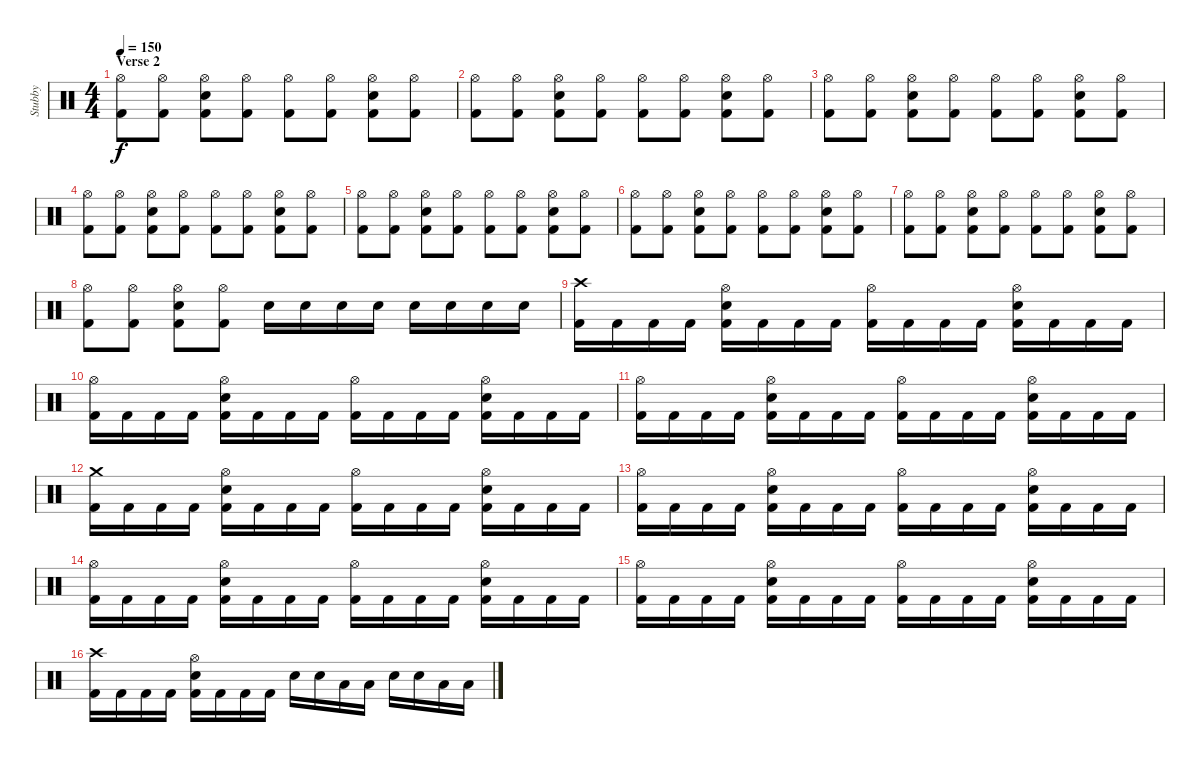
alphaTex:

\track ("Stubby" "Stubby") {instrument percussion}
\staff {score}
\articulation defaults
\ts (4 4)
\section ("" "Verse 2")
\tempo 150
\clef neutral
\ks c
("Hi-Hat (open)" "Kick (hit) 2").8{dy f} ("Hi-Hat (open)" "Kick (hit) 2").8 ("Hi-Hat (open)" "Snare (hit) 2" "Kick (hit) 2").8 ("Hi-Hat (open)" "Kick (hit) 2").8 ("Hi-Hat (open)" "Kick (hit) 2").8 ("Hi-Hat (open)" "Kick (hit) 2").8 ("Hi-Hat (open)" "Snare (hit) 2" "Kick (hit) 2").8 ("Hi-Hat (open)" "Kick (hit) 2").8 |
("Hi-Hat (open)" "Kick (hit) 2").8 ("Hi-Hat (open)" "Kick (hit) 2").8 ("Hi-Hat (open)" "Snare (hit) 2" "Kick (hit) 2").8 ("Hi-Hat (open)" "Kick (hit) 2").8 ("Hi-Hat (open)" "Kick (hit) 2").8 ("Hi-Hat (open)" "Kick (hit) 2").8 ("Hi-Hat (open)" "Snare (hit) 2" "Kick (hit) 2").8 ("Hi-Hat (open)" "Kick (hit) 2").8 |
("Hi-Hat (open)" "Kick (hit) 2").8 ("Hi-Hat (open)" "Kick (hit) 2").8 ("Hi-Hat (open)" "Snare (hit) 2" "Kick (hit) 2").8 ("Hi-Hat (open)" "Kick (hit) 2").8 ("Hi-Hat (open)" "Kick (hit) 2").8 ("Hi-Hat (open)" "Kick (hit) 2").8 ("Hi-Hat (open)" "Snare (hit) 2" "Kick (hit) 2").8 ("Hi-Hat (open)" "Kick (hit) 2").8 |
("Hi-Hat (open)" "Kick (hit) 2").8 ("Hi-Hat (open)" "Kick (hit) 2").8 ("Hi-Hat (open)" "Snare (hit) 2" "Kick (hit) 2").8 ("Hi-Hat (open)" "Kick (hit) 2").8 ("Hi-Hat (open)" "Kick (hit) 2").8 ("Hi-Hat (open)" "Kick (hit) 2").8 ("Hi-Hat (open)" "Snare (hit) 2" "Kick (hit) 2").8 ("Hi-Hat (open)" "Kick (hit) 2").8 |
("Hi-Hat (open)" "Kick (hit) 2").8 ("Hi-Hat (open)" "Kick (hit) 2").8 ("Hi-Hat (open)" "Snare (hit) 2" "Kick (hit) 2").8 ("Hi-Hat (open)" "Kick (hit) 2").8 ("Hi-Hat (open)" "Kick (hit) 2").8 ("Hi-Hat (open)" "Kick (hit) 2").8 ("Hi-Hat (open)" "Snare (hit) 2" "Kick (hit) 2").8 ("Hi-Hat (open)" "Kick (hit) 2").8 |
("Hi-Hat (open)" "Kick (hit) 2").8 ("Hi-Hat (open)" "Kick (hit) 2").8 ("Hi-Hat (open)" "Snare (hit) 2" "Kick (hit) 2").8 ("Hi-Hat (open)" "Kick (hit) 2").8 ("Hi-Hat (open)" "Kick (hit) 2").8 ("Hi-Hat (open)" "Kick (hit) 2").8 ("Hi-Hat (open)" "Snare (hit) 2" "Kick (hit) 2").8 ("Hi-Hat (open)" "Kick (hit) 2").8 |
("Hi-Hat (open)" "Kick (hit) 2").8 ("Hi-Hat (open)" "Kick (hit) 2").8 ("Hi-Hat (open)" "Snare (hit) 2" "Kick (hit) 2").8 ("Hi-Hat (open)" "Kick (hit) 2").8 ("Hi-Hat (open)" "Kick (hit) 2").8 ("Hi-Hat (open)" "Kick (hit) 2").8 ("Hi-Hat (open)" "Snare (hit) 2" "Kick (hit) 2").8 ("Hi-Hat (open)" "Kick (hit) 2").8 |
("Hi-Hat (open)" "Kick (hit) 2").8 ("Hi-Hat (open)" "Kick (hit) 2").8 ("Hi-Hat (open)" "Snare (hit) 2" "Kick (hit) 2").8 ("Hi-Hat (open)" "Kick (hit) 2").8 "Snare (hit) 2".16 "Snare (hit) 2".16 "Snare (hit) 2".16 "Snare (hit) 2".16 "Snare (hit) 2".16 "Snare (hit) 2".16 "Snare (hit) 2".16 "Snare (hit) 2".16 |
("Crash high (hit)" "Kick (hit) 2").16 "Kick (hit) 2".16 "Kick (hit) 2".16 "Kick (hit) 2".16 ("Hi-Hat (open)" "Snare (hit) 2" "Kick (hit) 2").16 "Kick (hit) 2".16 "Kick (hit) 2".16 "Kick (hit) 2".16 ("Hi-Hat (open)" "Kick (hit) 2").16 "Kick (hit) 2".16 "Kick (hit) 2".16 "Kick (hit) 2".16 ("Hi-Hat (open)" "Snare (hit) 2" "Kick (hit) 2").16 "Kick (hit) 2".16 "Kick (hit) 2".16 "Kick (hit) 2".16 |
("Hi-Hat (open)" "Kick (hit) 2").16 "Kick (hit) 2".16 "Kick (hit) 2".16 "Kick (hit) 2".16 ("Hi-Hat (open)" "Snare (hit) 2" "Kick (hit) 2").16 "Kick (hit) 2".16 "Kick (hit) 2".16 "Kick (hit) 2".16 ("Hi-Hat (open)" "Kick (hit) 2").16 "Kick (hit) 2".16 "Kick (hit) 2".16 "Kick (hit) 2".16 ("Hi-Hat (open)" "Snare (hit) 2" "Kick (hit) 2").16 "Kick (hit) 2".16 "Kick (hit) 2".16 "Kick (hit) 2".16 |
("Hi-Hat (open)" "Kick (hit) 2").16 "Kick (hit) 2".16 "Kick (hit) 2".16 "Kick (hit) 2".16 ("Hi-Hat (open)" "Snare (hit) 2" "Kick (hit) 2").16 "Kick (hit) 2".16 "Kick (hit) 2".16 "Kick (hit) 2".16 ("Hi-Hat (open)" "Kick (hit) 2").16 "Kick (hit) 2".16 "Kick (hit) 2".16 "Kick (hit) 2".16 ("Hi-Hat (open)" "Snare (hit) 2" "Kick (hit) 2").16 "Kick (hit) 2".16 "Kick (hit) 2".16 "Kick (hit) 2".16 |
("Crash medium (hit)" "Kick (hit) 2").16 "Kick (hit) 2".16 "Kick (hit) 2".16 "Kick (hit) 2".16 ("Hi-Hat (open)" "Snare (hit) 2" "Kick (hit) 2").16 "Kick (hit) 2".16 "Kick (hit) 2".16 "Kick (hit) 2".16 ("Hi-Hat (open)" "Kick (hit) 2").16 "Kick (hit) 2".16 "Kick (hit) 2".16 "Kick (hit) 2".16 ("Hi-Hat (open)" "Snare (hit) 2" "Kick (hit) 2").16 "Kick (hit) 2".16 "Kick (hit) 2".16 "Kick (hit) 2".16 |
("Hi-Hat (open)" "Kick (hit) 2").16 "Kick (hit) 2".16 "Kick (hit) 2".16 "Kick (hit) 2".16 ("Hi-Hat (open)" "Snare (hit) 2" "Kick (hit) 2").16 "Kick (hit) 2".16 "Kick (hit) 2".16 "Kick (hit) 2".16 ("Hi-Hat (open)" "Kick (hit) 2").16 "Kick (hit) 2".16 "Kick (hit) 2".16 "Kick (hit) 2".16 ("Hi-Hat (open)" "Snare (hit) 2" "Kick (hit) 2").16 "Kick (hit) 2".16 "Kick (hit) 2".16 "Kick (hit) 2".16 |
("Hi-Hat (open)" "Kick (hit) 2").16 "Kick (hit) 2".16 "Kick (hit) 2".16 "Kick (hit) 2".16 ("Hi-Hat (open)" "Snare (hit) 2" "Kick (hit) 2").16 "Kick (hit) 2".16 "Kick (hit) 2".16 "Kick (hit) 2".16 ("Hi-Hat (open)" "Kick (hit) 2").16 "Kick (hit) 2".16 "Kick (hit) 2".16 "Kick (hit) 2".16 ("Hi-Hat (open)" "Snare (hit) 2" "Kick (hit) 2").16 "Kick (hit) 2".16 "Kick (hit) 2".16 "Kick (hit) 2".16 |
("Hi-Hat (open)" "Kick (hit) 2").16 "Kick (hit) 2".16 "Kick (hit) 2".16 "Kick (hit) 2".16 ("Hi-Hat (open)" "Snare (hit) 2" "Kick (hit) 2").16 "Kick (hit) 2".16 "Kick (hit) 2".16 "Kick (hit) 2".16 ("Hi-Hat (open)" "Kick (hit) 2").16 "Kick (hit) 2".16 "Kick (hit) 2".16 "Kick (hit) 2".16 ("Hi-Hat (open)" "Snare (hit) 2" "Kick (hit) 2").16 "Kick (hit) 2".16 "Kick (hit) 2".16 "Kick (hit) 2".16 |
("Crash high (hit)" "Kick (hit) 2").16 "Kick (hit) 2".16 "Kick (hit) 2".16 "Kick (hit) 2".16 ("Hi-Hat (open)" "Snare (hit) 2" "Kick (hit) 2").16 "Kick (hit) 2".16 "Kick (hit) 2".16 "Kick (hit) 2".16 "Snare (hit) 2".16 "Snare (hit) 2".16 "Low Tom (hit)".16 "Low Tom (hit)".16 "Snare (hit) 2".16 "Snare (hit) 2".16 "Low Floor Tom (hit)".16 "Low Floor Tom (hit)".16
